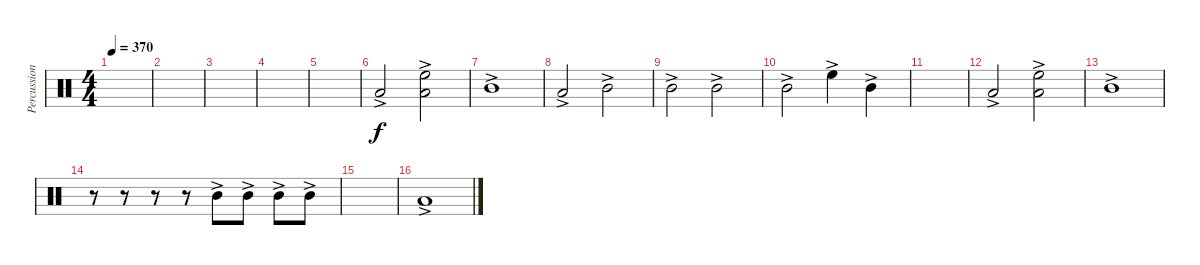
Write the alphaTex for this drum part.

\track ("Percussions" "Percussion") {instrument percussion}
\staff {score}
\articulation defaults
\ts (4 4)
\tempo 370
\clef neutral
\ks c
|
|
|
|
|
"Low Tom (hit)"{ac}.2 ("Low Tom (hit)"{ac} "High Floor Tom (hit)"{ac}).2 |
"Mid Tom (hit)"{ac}.1 |
"Low Tom (hit)"{ac}.2 "Mid Tom (hit)"{ac}.2 |
"Mid Tom (hit)"{ac}.2 "Mid Tom (hit)"{ac}.2 |
"Mid Tom (hit)"{ac}.2 "High Floor Tom (hit)"{ac}.4 "Mid Tom (hit)"{ac}.4 |
|
"Low Tom (hit)"{ac}.2 ("Low Tom (hit)"{ac} "High Floor Tom (hit)"{ac}).2 |
"Mid Tom (hit)"{ac}.1 |
r.8 r.8 r.8 r.8 "Mid Tom (hit)"{ac}.8 "Mid Tom (hit)"{ac}.8 "Mid Tom (hit)"{ac}.8 "Mid Tom (hit)"{ac}.8 |
|
"Low Tom (hit)"{ac}.1
